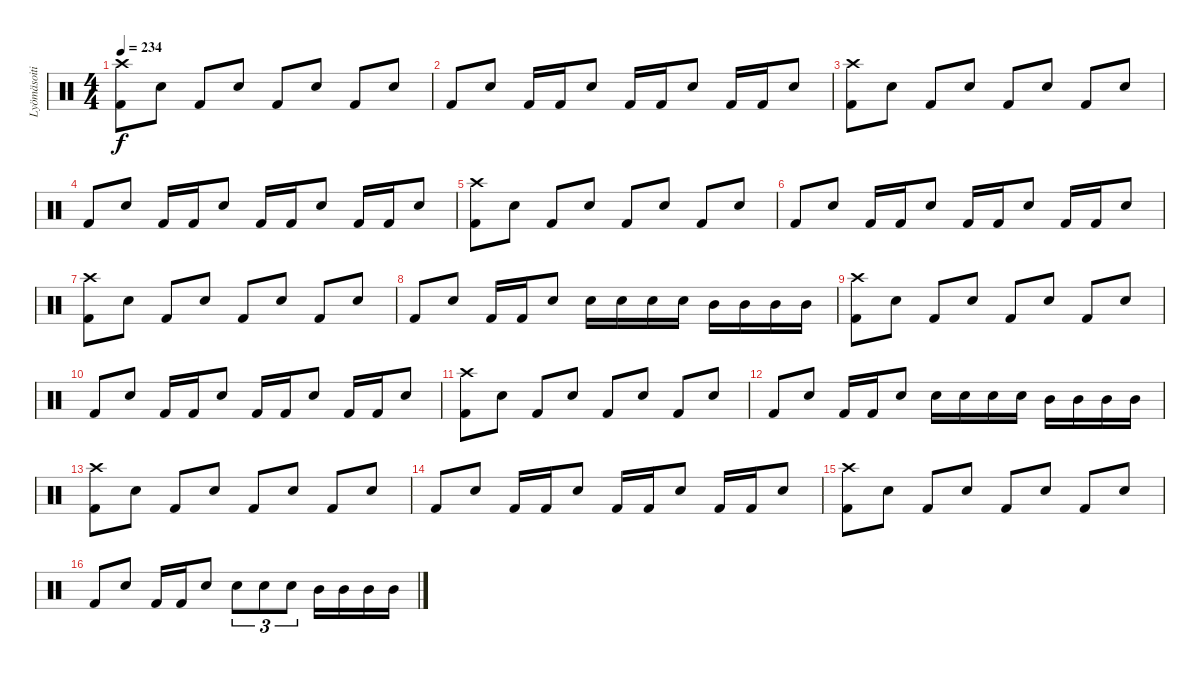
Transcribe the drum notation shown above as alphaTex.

\track ("Lyömäsoitin" "Lyömäsoiti") {instrument percussion}
\staff {score}
\articulation defaults
\ts (4 4)
\tempo 234
\clef neutral
\ks c
("Crash high (hit)" "Kick (hit) 2").8{dy f} "Snare (hit) 2".8 "Kick (hit) 2".8 "Snare (hit) 2".8 "Kick (hit) 2".8 "Snare (hit) 2".8 "Kick (hit) 2".8 "Snare (hit) 2".8 |
"Kick (hit) 2".8 "Snare (hit) 2".8 "Kick (hit) 2".16 "Kick (hit) 2".16 "Snare (hit) 2".8 "Kick (hit) 2".16 "Kick (hit) 2".16 "Snare (hit) 2".8 "Kick (hit) 2".16 "Kick (hit) 2".16 "Snare (hit) 2".8 |
("Crash high (hit)" "Kick (hit) 2").8 "Snare (hit) 2".8 "Kick (hit) 2".8 "Snare (hit) 2".8 "Kick (hit) 2".8 "Snare (hit) 2".8 "Kick (hit) 2".8 "Snare (hit) 2".8 |
"Kick (hit) 2".8 "Snare (hit) 2".8 "Kick (hit) 2".16 "Kick (hit) 2".16 "Snare (hit) 2".8 "Kick (hit) 2".16 "Kick (hit) 2".16 "Snare (hit) 2".8 "Kick (hit) 2".16 "Kick (hit) 2".16 "Snare (hit) 2".8 |
("Crash high (hit)" "Kick (hit) 2").8 "Snare (hit) 2".8 "Kick (hit) 2".8 "Snare (hit) 2".8 "Kick (hit) 2".8 "Snare (hit) 2".8 "Kick (hit) 2".8 "Snare (hit) 2".8 |
"Kick (hit) 2".8 "Snare (hit) 2".8 "Kick (hit) 2".16 "Kick (hit) 2".16 "Snare (hit) 2".8 "Kick (hit) 2".16 "Kick (hit) 2".16 "Snare (hit) 2".8 "Kick (hit) 2".16 "Kick (hit) 2".16 "Snare (hit) 2".8 |
("Crash high (hit)" "Kick (hit) 2").8 "Snare (hit) 2".8 "Kick (hit) 2".8 "Snare (hit) 2".8 "Kick (hit) 2".8 "Snare (hit) 2".8 "Kick (hit) 2".8 "Snare (hit) 2".8 |
"Kick (hit) 2".8 "Snare (hit) 2".8 "Kick (hit) 2".16 "Kick (hit) 2".16 "Snare (hit) 2".8 "Electric Snare (hit)".16 "Electric Snare (hit)".16 "Electric Snare (hit)".16 "Electric Snare (hit)".16 "Mid Tom (hit)".16 "Mid Tom (hit)".16 "Mid Tom (hit)".16 "Mid Tom (hit)".16 |
("Crash high (hit)" "Kick (hit) 2").8 "Snare (hit) 2".8 "Kick (hit) 2".8 "Snare (hit) 2".8 "Kick (hit) 2".8 "Snare (hit) 2".8 "Kick (hit) 2".8 "Snare (hit) 2".8 |
"Kick (hit) 2".8 "Snare (hit) 2".8 "Kick (hit) 2".16 "Kick (hit) 2".16 "Snare (hit) 2".8 "Kick (hit) 2".16 "Kick (hit) 2".16 "Snare (hit) 2".8 "Kick (hit) 2".16 "Kick (hit) 2".16 "Snare (hit) 2".8 |
("Crash high (hit)" "Kick (hit) 2").8 "Snare (hit) 2".8 "Kick (hit) 2".8 "Snare (hit) 2".8 "Kick (hit) 2".8 "Snare (hit) 2".8 "Kick (hit) 2".8 "Snare (hit) 2".8 |
"Kick (hit) 2".8 "Snare (hit) 2".8 "Kick (hit) 2".16 "Kick (hit) 2".16 "Snare (hit) 2".8 "Electric Snare (hit)".16 "Electric Snare (hit)".16 "Electric Snare (hit)".16 "Electric Snare (hit)".16 "Mid Tom (hit)".16 "Mid Tom (hit)".16 "Mid Tom (hit)".16 "Mid Tom (hit)".16 |
("Crash high (hit)" "Kick (hit) 2").8 "Snare (hit) 2".8 "Kick (hit) 2".8 "Snare (hit) 2".8 "Kick (hit) 2".8 "Snare (hit) 2".8 "Kick (hit) 2".8 "Snare (hit) 2".8 |
"Kick (hit) 2".8 "Snare (hit) 2".8 "Kick (hit) 2".16 "Kick (hit) 2".16 "Snare (hit) 2".8 "Kick (hit) 2".16 "Kick (hit) 2".16 "Snare (hit) 2".8 "Kick (hit) 2".16 "Kick (hit) 2".16 "Snare (hit) 2".8 |
("Crash high (hit)" "Kick (hit) 2").8 "Snare (hit) 2".8 "Kick (hit) 2".8 "Snare (hit) 2".8 "Kick (hit) 2".8 "Snare (hit) 2".8 "Kick (hit) 2".8 "Snare (hit) 2".8 |
"Kick (hit) 2".8 "Snare (hit) 2".8 "Kick (hit) 2".16 "Kick (hit) 2".16 "Snare (hit) 2".8 "Electric Snare (hit)".8{tu (3 2)} "Electric Snare (hit)".8{tu (3 2)} "Electric Snare (hit)".8{tu (3 2)} "Mid Tom (hit)".16 "Mid Tom (hit)".16 "Mid Tom (hit)".16 "Mid Tom (hit)".16
